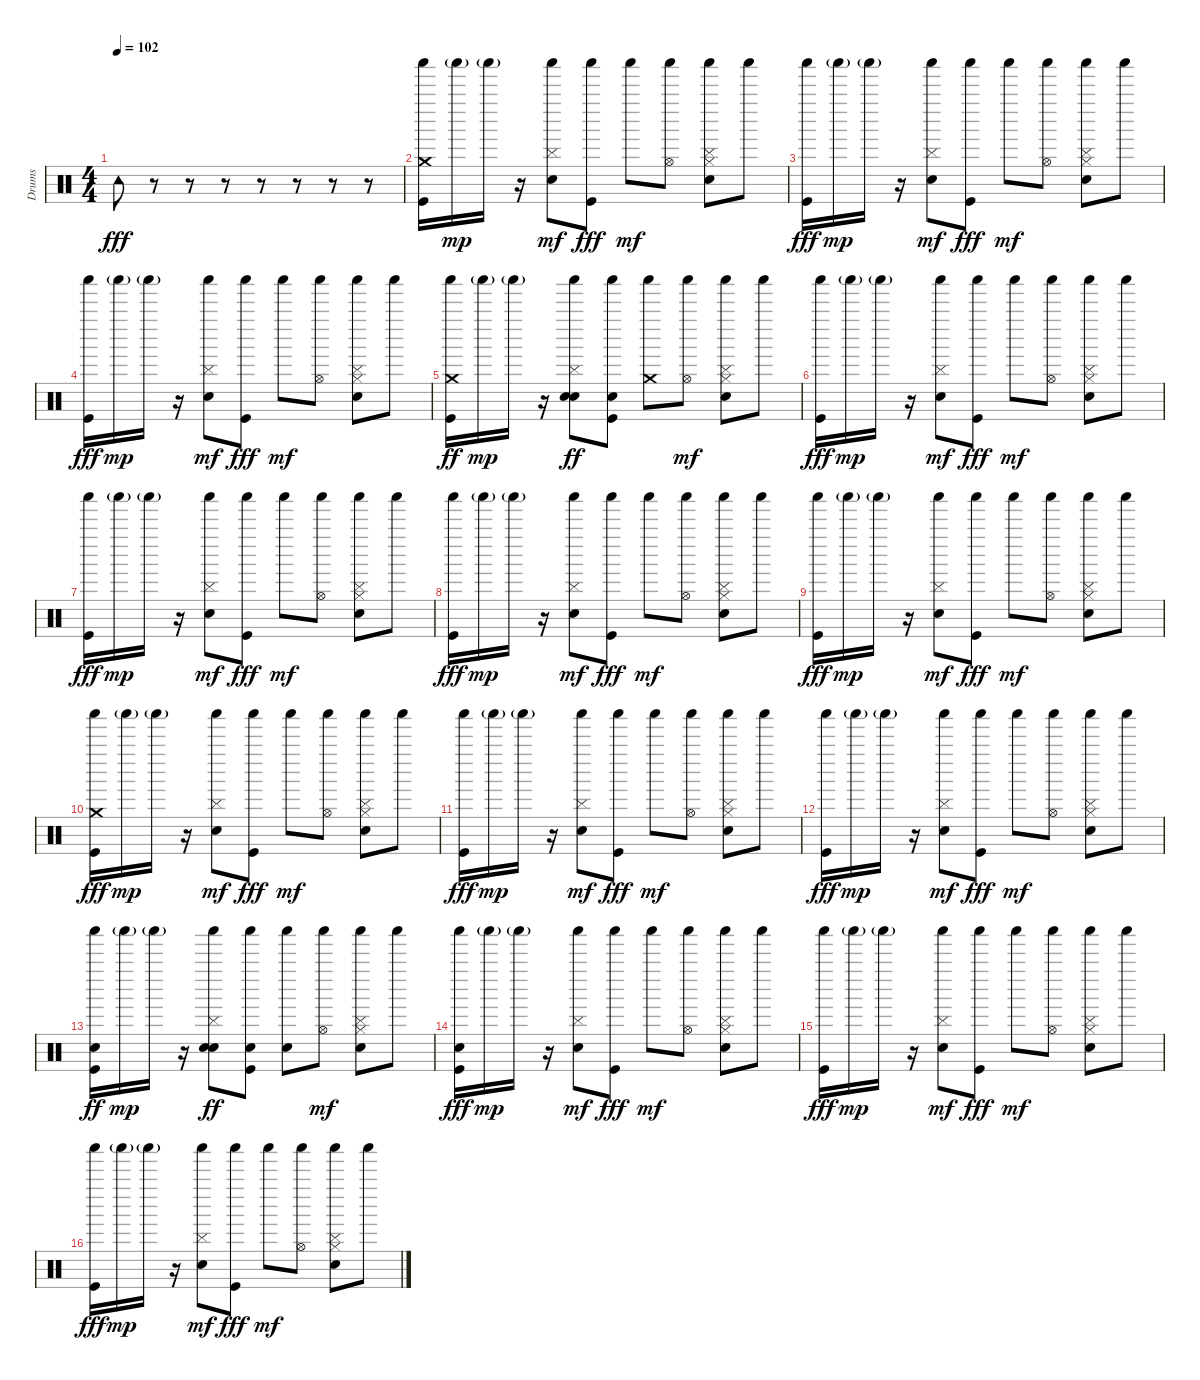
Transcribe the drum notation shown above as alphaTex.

\track ("Drums" "Drums") {instrument percussion}
\staff {score}
\articulation defaults
\ts (4 4)
\tempo 102
\clef neutral
\ks c "Tambourine (hit)".8{dy fff}
r.8 r.8 r.8 r.8 r.8 r.8 r.8 |
("Shaker (hit)" "Crash medium (hit)" "Kick (hit)").16 "Shaker (hit)"{g}.16{dy mp} "Shaker (hit)"{g}.16 r.16 ("Shaker (hit)" "Hand Clap (hit)" "Cymbal (hit)").8{dy mf} ("Shaker (hit)" "Kick (hit)").8{dy fff} "Shaker (hit)".8{dy mf} ("Shaker (hit)" "Hi-Hat (open)").8 ("Hi-Hat (closed)" "Hand Clap (hit)" "Cymbal (hit)" "Shaker (hit)").8 "Shaker (hit)".8 |
("Shaker (hit)" "Kick (hit)").16{dy fff} "Shaker (hit)"{g}.16{dy mp} "Shaker (hit)"{g}.16 r.16 ("Shaker (hit)" "Hand Clap (hit)" "Cymbal (hit)").8{dy mf} ("Shaker (hit)" "Kick (hit)").8{dy fff} "Shaker (hit)".8{dy mf} ("Shaker (hit)" "Hi-Hat (open)").8 ("Hi-Hat (closed)" "Hand Clap (hit)" "Cymbal (hit)" "Shaker (hit)").8 "Shaker (hit)".8 |
("Shaker (hit)" "Kick (hit)").16{dy fff} "Shaker (hit)"{g}.16{dy mp} "Shaker (hit)"{g}.16 r.16 ("Shaker (hit)" "Hand Clap (hit)" "Cymbal (hit)").8{dy mf} ("Shaker (hit)" "Kick (hit)").8{dy fff} "Shaker (hit)".8{dy mf} ("Shaker (hit)" "Hi-Hat (open)").8 ("Hi-Hat (closed)" "Hand Clap (hit)" "Cymbal (hit)" "Shaker (hit)").8 "Shaker (hit)".8 |
("Shaker (hit)" "Kick (hit)" "Crash medium (hit)").16{dy ff} "Shaker (hit)"{g}.16{dy mp} "Shaker (hit)"{g}.16 r.16 ("Shaker (hit)" "Hand Clap (hit)" "Cymbal (hit)" "Snare (hit)").8{dy ff} ("Shaker (hit)" "Kick (hit)" "Snare (hit)").8 ("Shaker (hit)" "Crash medium (hit)").8 ("Shaker (hit)" "Hi-Hat (open)").8{dy mf} ("Hi-Hat (closed)" "Hand Clap (hit)" "Cymbal (hit)" "Shaker (hit)").8 "Shaker (hit)".8 |
("Shaker (hit)" "Kick (hit)").16{dy fff} "Shaker (hit)"{g}.16{dy mp} "Shaker (hit)"{g}.16 r.16 ("Shaker (hit)" "Hand Clap (hit)" "Cymbal (hit)").8{dy mf} ("Shaker (hit)" "Kick (hit)").8{dy fff} "Shaker (hit)".8{dy mf} ("Shaker (hit)" "Hi-Hat (open)").8 ("Hi-Hat (closed)" "Hand Clap (hit)" "Cymbal (hit)" "Shaker (hit)").8 "Shaker (hit)".8 |
("Shaker (hit)" "Kick (hit)").16{dy fff} "Shaker (hit)"{g}.16{dy mp} "Shaker (hit)"{g}.16 r.16 ("Shaker (hit)" "Hand Clap (hit)" "Cymbal (hit)").8{dy mf} ("Shaker (hit)" "Kick (hit)").8{dy fff} "Shaker (hit)".8{dy mf} ("Shaker (hit)" "Hi-Hat (open)").8 ("Hi-Hat (closed)" "Hand Clap (hit)" "Cymbal (hit)" "Shaker (hit)").8 "Shaker (hit)".8 |
("Shaker (hit)" "Kick (hit)").16{dy fff} "Shaker (hit)"{g}.16{dy mp} "Shaker (hit)"{g}.16 r.16 ("Shaker (hit)" "Hand Clap (hit)" "Cymbal (hit)").8{dy mf} ("Shaker (hit)" "Kick (hit)").8{dy fff} "Shaker (hit)".8{dy mf} ("Shaker (hit)" "Hi-Hat (open)").8 ("Hi-Hat (closed)" "Hand Clap (hit)" "Cymbal (hit)" "Shaker (hit)").8 "Shaker (hit)".8 |
("Shaker (hit)" "Kick (hit)").16{dy fff} "Shaker (hit)"{g}.16{dy mp} "Shaker (hit)"{g}.16 r.16 ("Shaker (hit)" "Hand Clap (hit)" "Cymbal (hit)").8{dy mf} ("Shaker (hit)" "Kick (hit)").8{dy fff} "Shaker (hit)".8{dy mf} ("Shaker (hit)" "Hi-Hat (open)").8 ("Hi-Hat (closed)" "Hand Clap (hit)" "Cymbal (hit)" "Shaker (hit)").8 "Shaker (hit)".8 |
("Shaker (hit)" "Crash medium (hit)" "Kick (hit)").16{dy fff} "Shaker (hit)"{g}.16{dy mp} "Shaker (hit)"{g}.16 r.16 ("Shaker (hit)" "Hand Clap (hit)" "Cymbal (hit)").8{dy mf} ("Shaker (hit)" "Kick (hit)").8{dy fff} "Shaker (hit)".8{dy mf} ("Shaker (hit)" "Hi-Hat (open)").8 ("Hi-Hat (closed)" "Hand Clap (hit)" "Cymbal (hit)" "Shaker (hit)").8 "Shaker (hit)".8 |
("Shaker (hit)" "Kick (hit)").16{dy fff} "Shaker (hit)"{g}.16{dy mp} "Shaker (hit)"{g}.16 r.16 ("Shaker (hit)" "Hand Clap (hit)" "Cymbal (hit)").8{dy mf} ("Shaker (hit)" "Kick (hit)").8{dy fff} "Shaker (hit)".8{dy mf} ("Shaker (hit)" "Hi-Hat (open)").8 ("Hi-Hat (closed)" "Hand Clap (hit)" "Cymbal (hit)" "Shaker (hit)").8 "Shaker (hit)".8 |
("Shaker (hit)" "Kick (hit)").16{dy fff} "Shaker (hit)"{g}.16{dy mp} "Shaker (hit)"{g}.16 r.16 ("Shaker (hit)" "Hand Clap (hit)" "Cymbal (hit)").8{dy mf} ("Shaker (hit)" "Kick (hit)").8{dy fff} "Shaker (hit)".8{dy mf} ("Shaker (hit)" "Hi-Hat (open)").8 ("Hi-Hat (closed)" "Hand Clap (hit)" "Cymbal (hit)" "Shaker (hit)").8 "Shaker (hit)".8 |
("Shaker (hit)" "Kick (hit)" "Snare (hit)").16{dy ff} "Shaker (hit)"{g}.16{dy mp} "Shaker (hit)"{g}.16 r.16 ("Shaker (hit)" "Hand Clap (hit)" "Cymbal (hit)" "Snare (hit)").8{dy ff} ("Shaker (hit)" "Kick (hit)" "Snare (hit)").8 ("Shaker (hit)" "Snare (hit)").8 ("Shaker (hit)" "Hi-Hat (open)").8{dy mf} ("Hi-Hat (closed)" "Hand Clap (hit)" "Cymbal (hit)" "Shaker (hit)").8 "Shaker (hit)".8 |
("Shaker (hit)" "Snare (hit)" "Kick (hit)").16{dy fff volume 0} "Shaker (hit)"{g}.16{dy mp} "Shaker (hit)"{g}.16 r.16 ("Shaker (hit)" "Hand Clap (hit)" "Cymbal (hit)").8{dy mf} ("Shaker (hit)" "Kick (hit)").8{dy fff} "Shaker (hit)".8{dy mf} ("Shaker (hit)" "Hi-Hat (open)").8 ("Hi-Hat (closed)" "Hand Clap (hit)" "Cymbal (hit)" "Shaker (hit)").8 "Shaker (hit)".8 |
("Shaker (hit)" "Kick (hit)").16{dy fff} "Shaker (hit)"{g}.16{dy mp} "Shaker (hit)"{g}.16 r.16 ("Shaker (hit)" "Hand Clap (hit)" "Cymbal (hit)").8{dy mf} ("Shaker (hit)" "Kick (hit)").8{dy fff} "Shaker (hit)".8{dy mf} ("Shaker (hit)" "Hi-Hat (open)").8 ("Hi-Hat (closed)" "Hand Clap (hit)" "Cymbal (hit)" "Shaker (hit)").8 "Shaker (hit)".8 |
("Shaker (hit)" "Kick (hit)").16{dy fff} "Shaker (hit)"{g}.16{dy mp} "Shaker (hit)"{g}.16 r.16 ("Shaker (hit)" "Hand Clap (hit)" "Cymbal (hit)").8{dy mf} ("Shaker (hit)" "Kick (hit)").8{dy fff} "Shaker (hit)".8{dy mf} ("Shaker (hit)" "Hi-Hat (open)").8 ("Hi-Hat (closed)" "Hand Clap (hit)" "Cymbal (hit)" "Shaker (hit)").8 "Shaker (hit)".8
